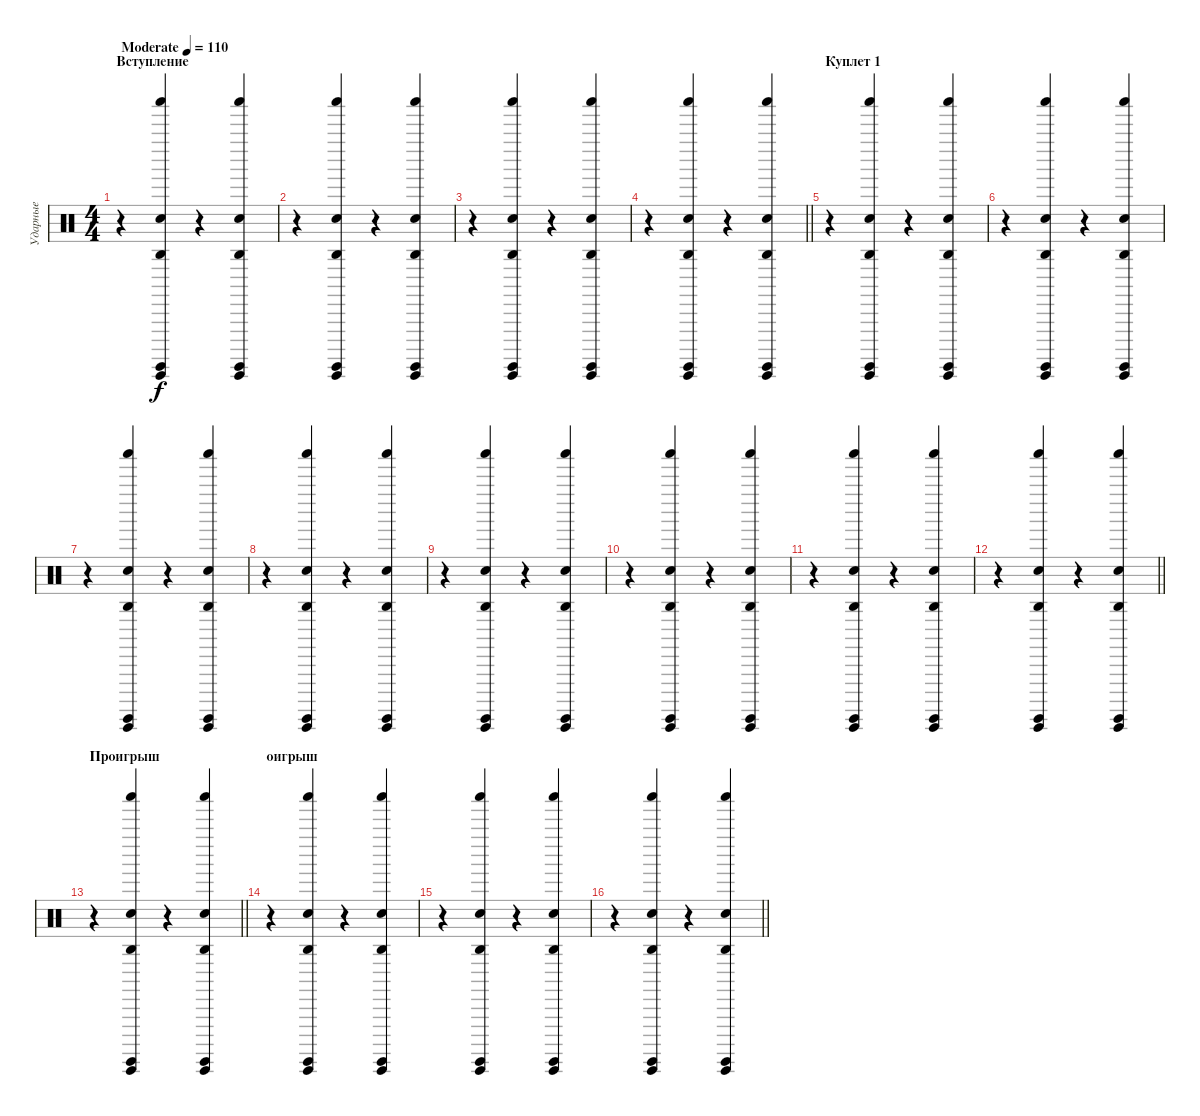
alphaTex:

\track ("Ударные" "Ударные") {instrument percussion}
\staff {score}
\articulation defaults
\ts (4 4)
\section ("" "Вступление")
\tempo (110 "Moderate")
\clef neutral
\ks c
r.4{dy f} ("Agogo high (hit)" "Hand Clap (hit)" "Guiro (hit)" "Shaker (hit)" "Surdo (hit)").4 r.4 ("Agogo high (hit)" "Hand Clap (hit)" "Guiro (hit)" "Shaker (hit)" "Surdo (hit)").4 |
r.4 ("Agogo high (hit)" "Hand Clap (hit)" "Guiro (hit)" "Shaker (hit)" "Surdo (hit)").4 r.4 ("Agogo high (hit)" "Hand Clap (hit)" "Guiro (hit)" "Shaker (hit)" "Surdo (hit)").4 |
r.4 ("Agogo high (hit)" "Hand Clap (hit)" "Guiro (hit)" "Shaker (hit)" "Surdo (hit)").4 r.4 ("Agogo high (hit)" "Hand Clap (hit)" "Guiro (hit)" "Shaker (hit)" "Surdo (hit)").4 |
\barLineRight lightlight
r.4 ("Agogo high (hit)" "Hand Clap (hit)" "Guiro (hit)" "Shaker (hit)" "Surdo (hit)").4 r.4 ("Agogo high (hit)" "Hand Clap (hit)" "Guiro (hit)" "Shaker (hit)" "Surdo (hit)").4 |
\section ("" "Куплет 1")
r.4 ("Agogo high (hit)" "Hand Clap (hit)" "Guiro (hit)" "Shaker (hit)" "Surdo (hit)").4 r.4 ("Agogo high (hit)" "Hand Clap (hit)" "Guiro (hit)" "Shaker (hit)" "Surdo (hit)").4 |
r.4 ("Agogo high (hit)" "Hand Clap (hit)" "Guiro (hit)" "Shaker (hit)" "Surdo (hit)").4 r.4 ("Agogo high (hit)" "Hand Clap (hit)" "Guiro (hit)" "Shaker (hit)" "Surdo (hit)").4 |
r.4 ("Agogo high (hit)" "Hand Clap (hit)" "Guiro (hit)" "Shaker (hit)" "Surdo (hit)").4 r.4 ("Agogo high (hit)" "Hand Clap (hit)" "Guiro (hit)" "Shaker (hit)" "Surdo (hit)").4 |
r.4 ("Agogo high (hit)" "Hand Clap (hit)" "Guiro (hit)" "Shaker (hit)" "Surdo (hit)").4 r.4 ("Agogo high (hit)" "Hand Clap (hit)" "Guiro (hit)" "Shaker (hit)" "Surdo (hit)").4 |
r.4 ("Agogo high (hit)" "Hand Clap (hit)" "Guiro (hit)" "Shaker (hit)" "Surdo (hit)").4 r.4 ("Agogo high (hit)" "Hand Clap (hit)" "Guiro (hit)" "Shaker (hit)" "Surdo (hit)").4 |
r.4 ("Agogo high (hit)" "Hand Clap (hit)" "Guiro (hit)" "Shaker (hit)" "Surdo (hit)").4 r.4 ("Agogo high (hit)" "Hand Clap (hit)" "Guiro (hit)" "Shaker (hit)" "Surdo (hit)").4 |
r.4 ("Agogo high (hit)" "Hand Clap (hit)" "Guiro (hit)" "Shaker (hit)" "Surdo (hit)").4 r.4 ("Agogo high (hit)" "Hand Clap (hit)" "Guiro (hit)" "Shaker (hit)" "Surdo (hit)").4 |
\barLineRight lightlight
r.4 ("Agogo high (hit)" "Hand Clap (hit)" "Guiro (hit)" "Shaker (hit)" "Surdo (hit)").4 r.4 ("Agogo high (hit)" "Hand Clap (hit)" "Guiro (hit)" "Shaker (hit)" "Surdo (hit)").4 |
\section ("" "Проигрыш")
\barLineRight lightlight
r.4 ("Agogo high (hit)" "Hand Clap (hit)" "Guiro (hit)" "Shaker (hit)" "Surdo (hit)").4 r.4 ("Agogo high (hit)" "Hand Clap (hit)" "Guiro (hit)" "Shaker (hit)" "Surdo (hit)").4 |
\section ("" "оигрыш")
r.4 ("Agogo high (hit)" "Hand Clap (hit)" "Guiro (hit)" "Shaker (hit)" "Surdo (hit)").4 r.4 ("Agogo high (hit)" "Hand Clap (hit)" "Guiro (hit)" "Shaker (hit)" "Surdo (hit)").4 |
r.4 ("Agogo high (hit)" "Hand Clap (hit)" "Guiro (hit)" "Shaker (hit)" "Surdo (hit)").4 r.4 ("Agogo high (hit)" "Hand Clap (hit)" "Guiro (hit)" "Shaker (hit)" "Surdo (hit)").4 |
\barLineRight lightlight
r.4 ("Agogo high (hit)" "Hand Clap (hit)" "Guiro (hit)" "Shaker (hit)" "Surdo (hit)").4 r.4 ("Agogo high (hit)" "Hand Clap (hit)" "Guiro (hit)" "Shaker (hit)" "Surdo (hit)").4
